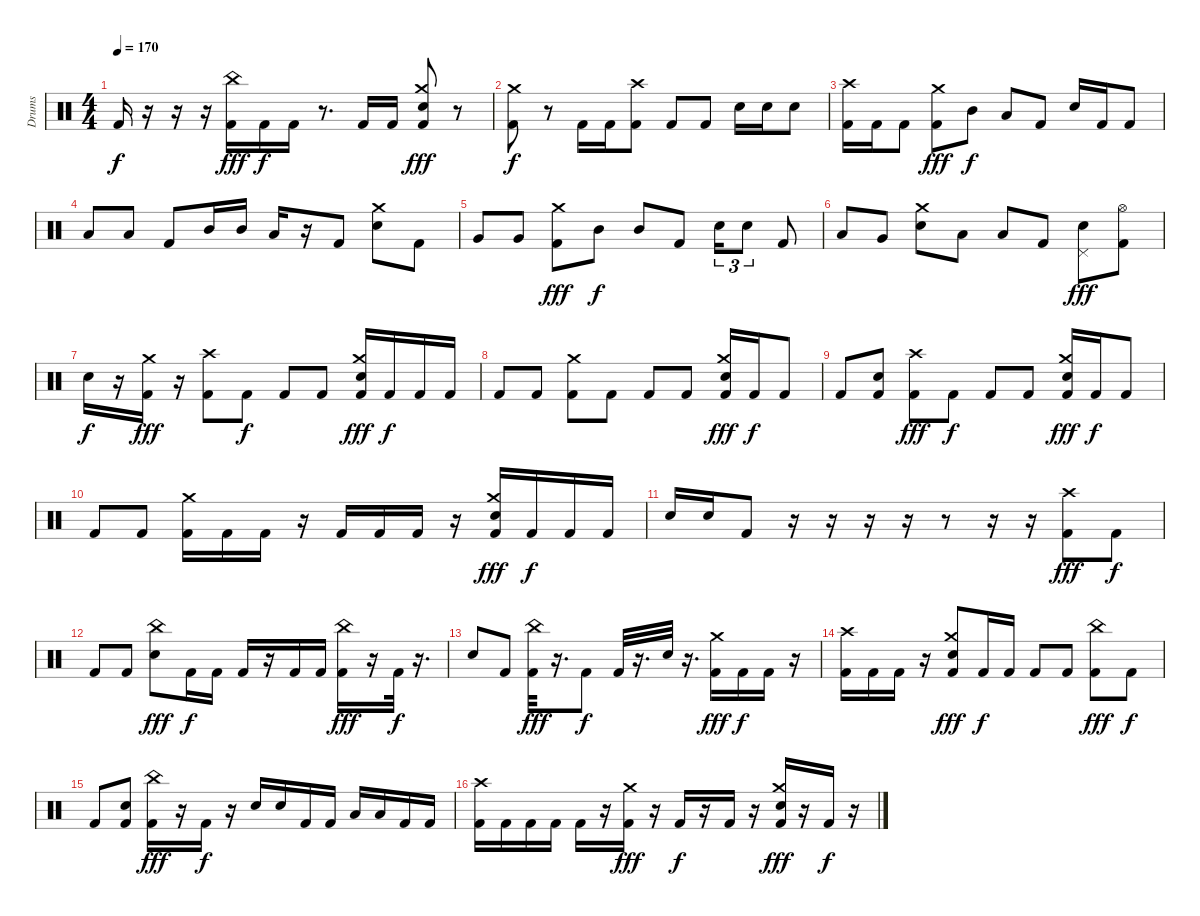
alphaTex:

\track ("Drums" "Drums") {instrument percussion}
\staff {score}
\articulation defaults
\ts (4 4)
\tempo 170
\clef neutral
\ks c "Kick (hit) 2".16{dy f}
r.16 r.16 r.16 ("China (hit)" "Kick (hit) 2").16{dy fff} "Kick (hit) 2".16{dy f} "Kick (hit) 2".16 r.8{d} "Kick (hit) 2".16 "Kick (hit) 2".16 ("Crash medium (hit)" "Electric Snare (hit)" "Kick (hit) 2").8{dy fff} r.8 |
("Crash medium (hit)" "Kick (hit) 2").8{dy f} r.8 "Kick (hit) 2".16 "Kick (hit) 2".16 ("Crash high (hit)" "Kick (hit) 2").8 "Kick (hit) 2".8 "Kick (hit) 2".8 "Electric Snare (hit)".16 "Electric Snare (hit)".16 "Electric Snare (hit)".8 |
("Crash high (hit)" "Kick (hit) 2").16 "Kick (hit) 2".16 "Kick (hit) 2".8 ("Crash medium (hit)" "Kick (hit) 2").8{dy fff} "Mid Tom (hit)".8{dy f} "Low Tom (hit)".8 "Kick (hit) 2".8 "Electric Snare (hit)".16 "Kick (hit) 2".16 "Kick (hit) 2".8 |
"Low Tom (hit)".8 "Low Tom (hit)".8 "Kick (hit) 2".8 "Mid Tom (hit)".16 "Mid Tom (hit)".16 "Low Tom (hit)".16 r.16 "Kick (hit) 2".8 ("Crash medium (hit)" "Electric Snare (hit)").8 "Kick (hit) 2".8 |
"Very Low Tom (hit)".8 "Very Low Tom (hit)".8 ("Crash medium (hit)" "Kick (hit) 2").8{dy fff} "Mid Tom (hit)".8{dy f} "Mid Tom (hit)".8 "Kick (hit) 2".8 "Electric Snare (hit)".16{tu (3 2)} "Electric Snare (hit)".8{tu (3 2)} "Kick (hit) 2".8 |
"Low Tom (hit)".8 "Very Low Tom (hit)".8 ("Crash medium (hit)" "Electric Snare (hit)").8 "Low Tom (hit)".8 "Low Tom (hit)".8 "Kick (hit) 2".8 ("Pedal Hi-Hat (hit)" "Electric Snare (hit)").8{dy fff} ("Hi-Hat (open)" "Kick (hit) 2").8 |
"Electric Snare (hit)".16{dy f} r.16 ("Crash medium (hit)" "Kick (hit) 2").16{dy fff} r.16 ("Crash high (hit)" "Kick (hit) 2").8 "Kick (hit) 2".8{dy f} "Kick (hit) 2".8 "Kick (hit) 2".8 ("Crash medium (hit)" "Electric Snare (hit)" "Kick (hit) 2").16{dy fff} "Kick (hit) 2".16{dy f} "Kick (hit) 2".16 "Kick (hit) 2".16 |
"Kick (hit) 2".8 "Kick (hit) 2".8 ("Crash medium (hit)" "Kick (hit) 2").8 "Kick (hit) 2".8 "Kick (hit) 2".8 "Kick (hit) 2".8 ("Crash medium (hit)" "Electric Snare (hit)" "Kick (hit) 2").16{dy fff} "Kick (hit) 2".16{dy f} "Kick (hit) 2".8 |
"Kick (hit) 2".8 ("Electric Snare (hit)" "Kick (hit) 2").8 ("Crash high (hit)" "Kick (hit) 2").8{dy fff} "Kick (hit) 2".8{dy f} "Kick (hit) 2".8 "Kick (hit) 2".8 ("Crash medium (hit)" "Electric Snare (hit)" "Kick (hit) 2").16{dy fff} "Kick (hit) 2".16{dy f} "Kick (hit) 2".8 |
"Kick (hit) 2".8 "Kick (hit) 2".8 ("Crash medium (hit)" "Kick (hit) 2").16 "Kick (hit) 2".16 "Kick (hit) 2".16 r.16 "Kick (hit) 2".16 "Kick (hit) 2".16 "Kick (hit) 2".16 r.16 ("Crash medium (hit)" "Electric Snare (hit)" "Kick (hit) 2").16{dy fff} "Kick (hit) 2".16{dy f} "Kick (hit) 2".16 "Kick (hit) 2".16 |
"Electric Snare (hit)".16 "Electric Snare (hit)".16 "Kick (hit) 2".8 r.16 r.16 r.16 r.16 r.8 r.16 r.16 ("Crash high (hit)" "Kick (hit) 2").8{dy fff} "Kick (hit) 2".8{dy f} |
"Kick (hit) 2".8 "Kick (hit) 2".8 ("China (hit)" "Electric Snare (hit)").8{dy fff} "Kick (hit) 2".16{dy f} "Kick (hit) 2".16 "Kick (hit) 2".16 r.16 "Kick (hit) 2".16 "Kick (hit) 2".16 ("China (hit)" "Kick (hit) 2").16{dy fff} r.16 "Kick (hit) 2".32{dy f} r.16{d} |
"Electric Snare (hit)".8 "Kick (hit) 2".8 ("China (hit)" "Kick (hit) 2").32{dy fff} r.16{d} "Kick (hit) 2".8{dy f} "Kick (hit) 2".32 r.16{d} "Electric Snare (hit)".32 r.16{d} ("Crash medium (hit)" "Kick (hit) 2").16{dy fff} "Kick (hit) 2".16{dy f} "Kick (hit) 2".16 r.16 |
("Crash high (hit)" "Kick (hit) 2").16 "Kick (hit) 2".16 "Kick (hit) 2".16 r.16 ("Crash medium (hit)" "Electric Snare (hit)" "Kick (hit) 2").8{dy fff} "Kick (hit) 2".16{dy f} "Kick (hit) 2".16 "Kick (hit) 2".8 "Kick (hit) 2".8 ("China (hit)" "Kick (hit) 2").8{dy fff} "Kick (hit) 2".8{dy f} |
"Kick (hit) 2".8 ("Electric Snare (hit)" "Kick (hit) 2").8 ("China (hit)" "Kick (hit) 2").16{dy fff} r.16 "Kick (hit) 2".16{dy f} r.16 "Electric Snare (hit)".16 "Electric Snare (hit)".16 "Kick (hit) 2".16 "Kick (hit) 2".16 "Low Tom (hit)".16 "Low Tom (hit)".16 "Kick (hit) 2".16 "Kick (hit) 2".16 |
("Crash high (hit)" "Kick (hit) 2").16 "Kick (hit) 2".16 "Kick (hit) 2".16 "Kick (hit) 2".16 "Kick (hit) 2".16 r.16 ("Crash medium (hit)" "Kick (hit) 2").16{dy fff} r.16 "Kick (hit) 2".16{dy f} r.16 "Kick (hit) 2".16 r.16 ("Crash medium (hit)" "Electric Snare (hit)" "Kick (hit) 2").16{dy fff} r.16 "Kick (hit) 2".16{dy f} r.16
